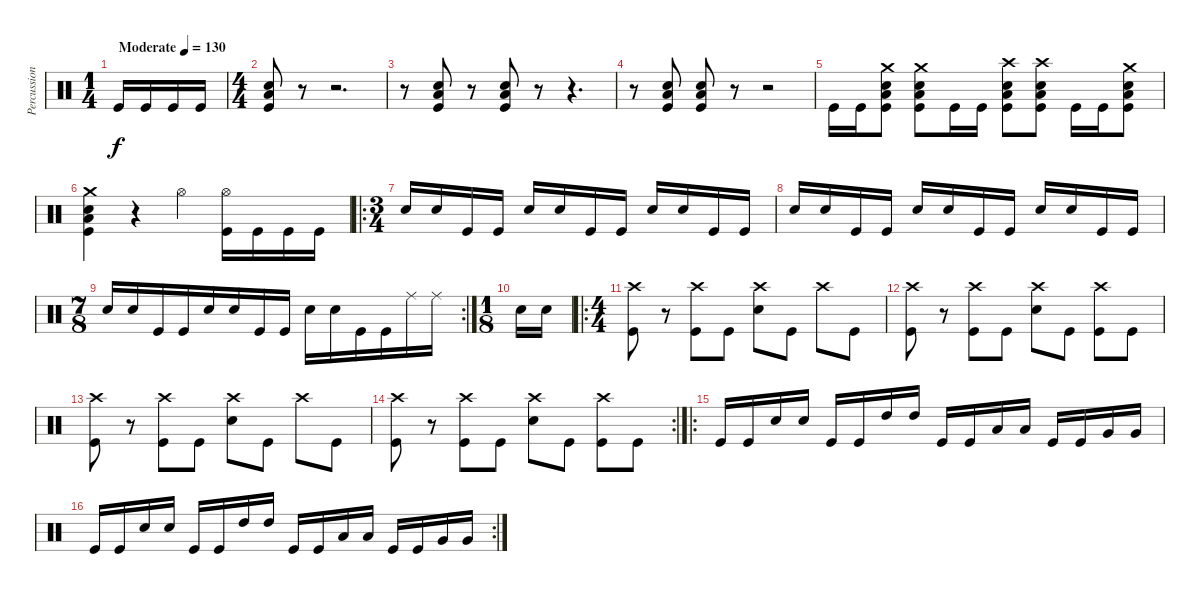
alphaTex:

\track ("Percussion" "Percussion") {instrument percussion}
\staff {score}
\articulation defaults
\ts (1 4)
\tempo (130 "Moderate")
\clef neutral
\ks c "Kick (hit)".16{dy f} "Kick (hit)".16 "Kick (hit)".16 "Kick (hit)".16
|
\ts (4 4)
("Snare (hit) 2" "Low Floor Tom (hit)" "Kick (hit)").8 r.8 r.2{d} |
r.8 ("Snare (hit) 2" "Low Floor Tom (hit)" "Kick (hit)").8 r.8 ("Snare (hit) 2" "Low Floor Tom (hit)" "Kick (hit)").8 r.8 r.4{d} |
r.8 ("Snare (hit) 2" "Low Floor Tom (hit)" "Kick (hit)").8 ("Snare (hit) 2" "Low Floor Tom (hit)" "Kick (hit)").8 r.8 r.2 |
"Kick (hit)".16 "Kick (hit)".16 ("Crash medium (hit)" "Snare (hit) 2" "Low Floor Tom (hit)" "Kick (hit)").8 ("Crash medium (hit)" "Snare (hit) 2" "Low Floor Tom (hit)" "Kick (hit)").8 "Kick (hit)".16 "Kick (hit)".16 ("Crash high (hit)" "Snare (hit) 2" "Low Floor Tom (hit)" "Kick (hit)").8 ("Crash high (hit)" "Snare (hit) 2" "Low Floor Tom (hit)" "Kick (hit)").8 "Kick (hit)".16 "Kick (hit)".16 ("Crash medium (hit)" "Snare (hit) 2" "Low Floor Tom (hit)" "Kick (hit)").8 |
("Crash medium (hit)" "Snare (hit) 2" "Low Floor Tom (hit)" "Kick (hit)").4 r.4 "Hi-Hat (open)".4 ("Hi-Hat (open)" "Kick (hit)").16 "Kick (hit)".16 "Kick (hit)".16 "Kick (hit)".16 |
\ro
\ts (3 4)
"Snare (hit) 2".16 "Snare (hit) 2".16 "Kick (hit)".16 "Kick (hit)".16 "Snare (hit) 2".16 "Snare (hit) 2".16 "Kick (hit)".16 "Kick (hit)".16 "Snare (hit) 2".16 "Snare (hit) 2".16 "Kick (hit)".16 "Kick (hit)".16 |
"Snare (hit) 2".16 "Snare (hit) 2".16 "Kick (hit)".16 "Kick (hit)".16 "Snare (hit) 2".16 "Snare (hit) 2".16 "Kick (hit)".16 "Kick (hit)".16 "Snare (hit) 2".16 "Snare (hit) 2".16 "Kick (hit)".16 "Kick (hit)".16 |
\rc 2
\ts (7 8)
"Snare (hit) 2".16 "Snare (hit) 2".16 "Kick (hit)".16 "Kick (hit)".16 "Snare (hit) 2".16 "Snare (hit) 2".16 "Kick (hit)".16 "Kick (hit)".16 "Snare (hit) 2".16 "Snare (hit) 2".16 "Kick (hit)".16 "Kick (hit)".16 "Ride (middle)".16 "Ride (middle)".16 |
\ts (1 8)
"Snare (hit) 2".16 "Snare (hit) 2".16 |
\ro
\ts (4 4)
("Crash high (hit)" "Kick (hit)").8 r.8 ("Crash high (hit)" "Kick (hit)").8 "Kick (hit)".8 ("Crash high (hit)" "Snare (hit) 2").8 "Kick (hit)".8 "Crash high (hit)".8 "Kick (hit)".8 |
("Crash high (hit)" "Kick (hit)").8 r.8 ("Crash high (hit)" "Kick (hit)").8 "Kick (hit)".8 ("Crash high (hit)" "Snare (hit) 2").8 "Kick (hit)".8 ("Crash high (hit)" "Kick (hit)").8 "Kick (hit)".8 |
("Crash high (hit)" "Kick (hit)").8 r.8 ("Crash high (hit)" "Kick (hit)").8 "Kick (hit)".8 ("Crash high (hit)" "Snare (hit) 2").8 "Kick (hit)".8 "Crash high (hit)".8 "Kick (hit)".8 |
\rc 2
("Crash high (hit)" "Kick (hit)").8 r.8 ("Crash high (hit)" "Kick (hit)").8 "Kick (hit)".8 ("Crash high (hit)" "Snare (hit) 2").8 "Kick (hit)".8 ("Crash high (hit)" "Kick (hit)").8 "Kick (hit)".8 |
\ro "Kick (hit)".16 "Kick (hit)".16 "Snare (hit) 2".16 "Snare (hit) 2".16 "Kick (hit)".16 "Kick (hit)".16 "High Tom (hit)".16 "High Tom (hit)".16 "Kick (hit)".16 "Kick (hit)".16 "Low Tom (hit)".16 "Low Tom (hit)".16 "Kick (hit)".16 "Kick (hit)".16 "Very Low Tom (hit)".16 "Very Low Tom (hit)".16
|
\rc 2 "Kick (hit)".16 "Kick (hit)".16 "Snare (hit) 2".16 "Snare (hit) 2".16 "Kick (hit)".16 "Kick (hit)".16 "High Tom (hit)".16 "High Tom (hit)".16 "Kick (hit)".16 "Kick (hit)".16 "Low Tom (hit)".16 "Low Tom (hit)".16 "Kick (hit)".16 "Kick (hit)".16 "Very Low Tom (hit)".16 "Very Low Tom (hit)".16
